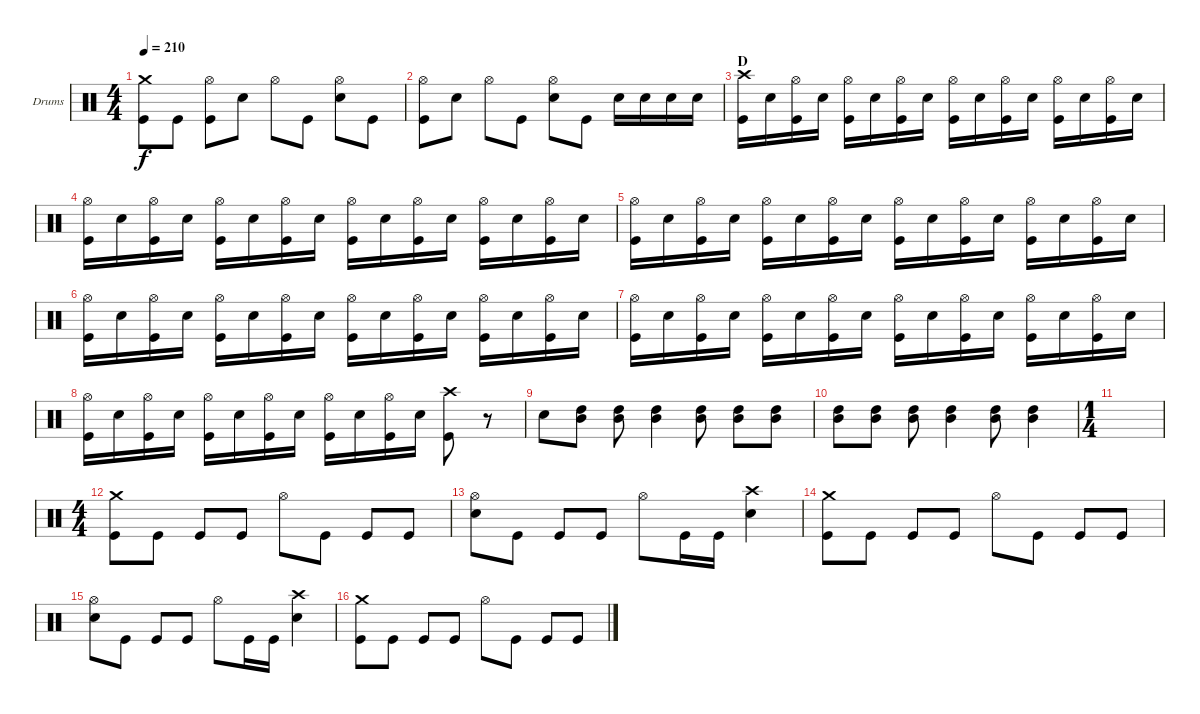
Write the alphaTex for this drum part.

\bracketExtendMode groupsimilarinstruments
\firstSystemTrackNameOrientation horizontal
\otherSystemsTrackNameOrientation horizontal
\track ("Drumkit" "Drums") {instrument percussion}
\staff {score}
\articulation defaults
\ts (4 4)
\tempo 210
\clef neutral
\ks c
("Crash medium (hit)" "Kick (hit)").8{dy f} "Kick (hit)".8 ("Hi-Hat (open)" "Kick (hit)").8 "Snare (hit) 2".8 "Hi-Hat (open)".8 "Kick (hit)".8 ("Hi-Hat (open)" "Snare (hit) 2").8 "Kick (hit)".8 |
("Hi-Hat (open)" "Kick (hit)").8 "Snare (hit) 2".8 "Hi-Hat (open)".8 "Kick (hit)".8 ("Hi-Hat (open)" "Snare (hit) 2").8 "Kick (hit)".8 "Snare (hit) 2".16 "Snare (hit) 2".16 "Snare (hit) 2".16 "Snare (hit) 2".16 |
\section ("" "D")
("Kick (hit)" "Crash high (hit)").16 "Snare (hit) 2".16 ("Kick (hit)" "Hi-Hat (open)").16 "Snare (hit) 2".16 ("Kick (hit)" "Hi-Hat (open)").16 "Snare (hit) 2".16 ("Kick (hit)" "Hi-Hat (open)").16 "Snare (hit) 2".16 ("Kick (hit)" "Hi-Hat (open)").16 "Snare (hit) 2".16 ("Kick (hit)" "Hi-Hat (open)").16 "Snare (hit) 2".16 ("Kick (hit)" "Hi-Hat (open)").16 "Snare (hit) 2".16 ("Kick (hit)" "Hi-Hat (open)").16 "Snare (hit) 2".16 |
("Kick (hit)" "Hi-Hat (open)").16 "Snare (hit) 2".16 ("Kick (hit)" "Hi-Hat (open)").16 "Snare (hit) 2".16 ("Kick (hit)" "Hi-Hat (open)").16 "Snare (hit) 2".16 ("Kick (hit)" "Hi-Hat (open)").16 "Snare (hit) 2".16 ("Kick (hit)" "Hi-Hat (open)").16 "Snare (hit) 2".16 ("Kick (hit)" "Hi-Hat (open)").16 "Snare (hit) 2".16 ("Kick (hit)" "Hi-Hat (open)").16 "Snare (hit) 2".16 ("Kick (hit)" "Hi-Hat (open)").16 "Snare (hit) 2".16 |
("Kick (hit)" "Hi-Hat (open)").16 "Snare (hit) 2".16 ("Kick (hit)" "Hi-Hat (open)").16 "Snare (hit) 2".16 ("Kick (hit)" "Hi-Hat (open)").16 "Snare (hit) 2".16 ("Kick (hit)" "Hi-Hat (open)").16 "Snare (hit) 2".16 ("Kick (hit)" "Hi-Hat (open)").16 "Snare (hit) 2".16 ("Kick (hit)" "Hi-Hat (open)").16 "Snare (hit) 2".16 ("Kick (hit)" "Hi-Hat (open)").16 "Snare (hit) 2".16 ("Kick (hit)" "Hi-Hat (open)").16 "Snare (hit) 2".16 |
("Kick (hit)" "Hi-Hat (open)").16 "Snare (hit) 2".16 ("Kick (hit)" "Hi-Hat (open)").16 "Snare (hit) 2".16 ("Kick (hit)" "Hi-Hat (open)").16 "Snare (hit) 2".16 ("Kick (hit)" "Hi-Hat (open)").16 "Snare (hit) 2".16 ("Kick (hit)" "Hi-Hat (open)").16 "Snare (hit) 2".16 ("Kick (hit)" "Hi-Hat (open)").16 "Snare (hit) 2".16 ("Kick (hit)" "Hi-Hat (open)").16 "Snare (hit) 2".16 ("Kick (hit)" "Hi-Hat (open)").16 "Snare (hit) 2".16 |
("Kick (hit)" "Hi-Hat (open)").16 "Snare (hit) 2".16 ("Kick (hit)" "Hi-Hat (open)").16 "Snare (hit) 2".16 ("Kick (hit)" "Hi-Hat (open)").16 "Snare (hit) 2".16 ("Kick (hit)" "Hi-Hat (open)").16 "Snare (hit) 2".16 ("Kick (hit)" "Hi-Hat (open)").16 "Snare (hit) 2".16 ("Kick (hit)" "Hi-Hat (open)").16 "Snare (hit) 2".16 ("Kick (hit)" "Hi-Hat (open)").16 "Snare (hit) 2".16 ("Kick (hit)" "Hi-Hat (open)").16 "Snare (hit) 2".16 |
("Kick (hit)" "Hi-Hat (open)").16 "Snare (hit) 2".16 ("Kick (hit)" "Hi-Hat (open)").16 "Snare (hit) 2".16 ("Kick (hit)" "Hi-Hat (open)").16 "Snare (hit) 2".16 ("Kick (hit)" "Hi-Hat (open)").16 "Snare (hit) 2".16 ("Kick (hit)" "Hi-Hat (open)").16 "Snare (hit) 2".16 ("Kick (hit)" "Hi-Hat (open)").16 "Snare (hit) 2".16 ("Crash high (hit)" "Kick (hit)").8 r.8 |
"Snare (hit) 2".8 ("High Tom (hit)" "Mid Tom (hit)").8 ("High Tom (hit)" "Mid Tom (hit)").8 ("High Tom (hit)" "Mid Tom (hit)").4 ("High Tom (hit)" "Mid Tom (hit)").8 ("High Tom (hit)" "Mid Tom (hit)").8 ("High Tom (hit)" "Mid Tom (hit)").8 |
("High Tom (hit)" "Mid Tom (hit)").8 ("High Tom (hit)" "Mid Tom (hit)").8 ("High Tom (hit)" "Mid Tom (hit)").8 ("High Tom (hit)" "Mid Tom (hit)").4 ("High Tom (hit)" "Mid Tom (hit)").8 ("High Tom (hit)" "Mid Tom (hit)").4 |
\ts (1 4)
|
\ts (4 4)
("Crash medium (hit)" "Kick (hit)").8 "Kick (hit)".8 "Kick (hit)".8 "Kick (hit)".8 "Hi-Hat (open)".8 "Kick (hit)".8 "Kick (hit)".8 "Kick (hit)".8 |
("Hi-Hat (open)" "Snare (hit) 2").8 "Kick (hit)".8 "Kick (hit)".8 "Kick (hit)".8 "Hi-Hat (open)".8 "Kick (hit)".16 "Kick (hit)".16 ("Crash high (hit)" "Snare (hit) 2").4 |
("Crash medium (hit)" "Kick (hit)").8 "Kick (hit)".8 "Kick (hit)".8 "Kick (hit)".8 "Hi-Hat (open)".8 "Kick (hit)".8 "Kick (hit)".8 "Kick (hit)".8 |
("Hi-Hat (open)" "Snare (hit) 2").8 "Kick (hit)".8 "Kick (hit)".8 "Kick (hit)".8 "Hi-Hat (open)".8 "Kick (hit)".16 "Kick (hit)".16 ("Crash high (hit)" "Snare (hit) 2").4 |
("Crash medium (hit)" "Kick (hit)").8 "Kick (hit)".8 "Kick (hit)".8 "Kick (hit)".8 "Hi-Hat (open)".8 "Kick (hit)".8 "Kick (hit)".8 "Kick (hit)".8
